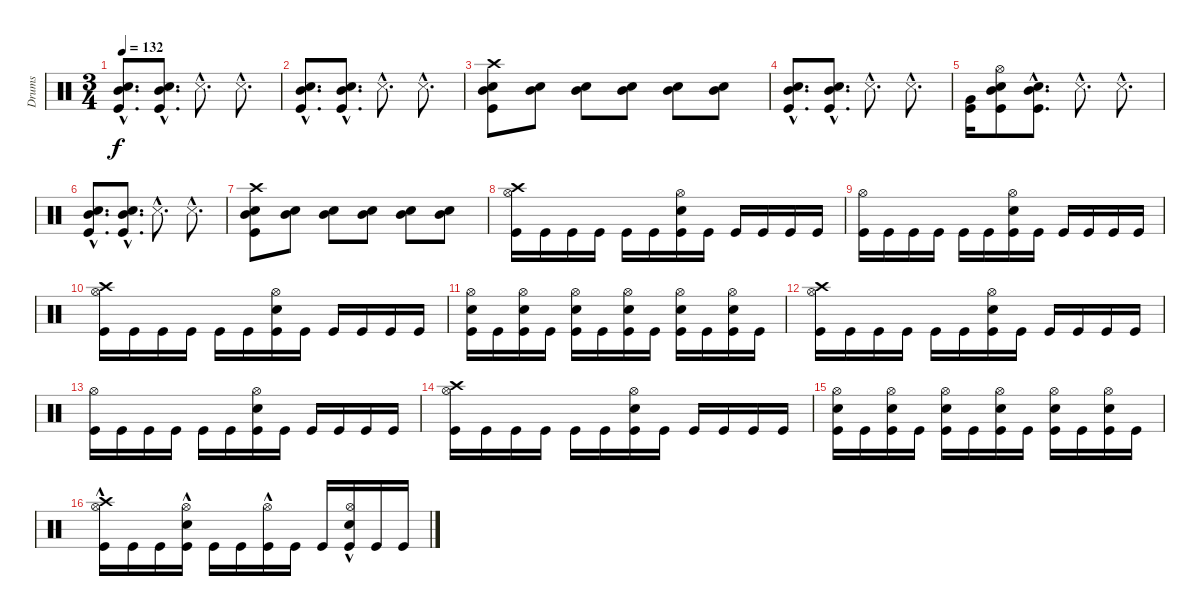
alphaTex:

\track ("Drums" "Drums") {instrument percussion}
\staff {score}
\articulation defaults
\ts (3 4)
\tempo 132
\clef neutral
\ks c
("Kick (hit)"{hac} "Snare (hit) 2"{hac} "Mid Tom (hit)"{hac}).8{d dy f} ("Kick (hit)"{hac} "Snare (hit) 2"{hac} "Mid Tom (hit)"{hac}).8{d} "Metronome (hit)"{hac}.8{d} "Metronome (hit)"{hac}.8{d} |
("Kick (hit)"{hac} "Snare (hit) 2"{hac} "Mid Tom (hit)"{hac}).8{d} ("Kick (hit)"{hac} "Snare (hit) 2"{hac} "Mid Tom (hit)"{hac}).8{d} "Metronome (hit)"{hac}.8{d} "Metronome (hit)"{hac}.8{d} |
("Mid Tom (hit)" "Crash high (hit)" "Snare (hit) 2" "Kick (hit)").8 ("Mid Tom (hit)" "Snare (hit) 2").8 ("Mid Tom (hit)" "Snare (hit) 2").8 ("Mid Tom (hit)" "Snare (hit) 2").8 ("Mid Tom (hit)" "Snare (hit) 2").8 ("Mid Tom (hit)" "Snare (hit) 2").8 |
("Kick (hit)"{hac} "Snare (hit) 2"{hac} "Mid Tom (hit)"{hac}).8{d} ("Kick (hit)"{hac} "Snare (hit) 2"{hac} "Mid Tom (hit)"{hac}).8{d} "Metronome (hit)"{hac}.8{d} "Metronome (hit)"{hac}.8{d} |
("Kick (hit)" "Very Low Tom (hit)").16 ("Hi-Hat (open)" "Snare (hit) 2" "Kick (hit)" "Mid Tom (hit)").8 ("Kick (hit)"{hac} "Snare (hit) 2"{hac} "Mid Tom (hit)"{hac}).8{d} "Metronome (hit)"{hac}.8{d} "Metronome (hit)"{hac}.8{d} |
("Kick (hit)"{hac} "Snare (hit) 2"{hac} "Mid Tom (hit)"{hac}).8{d} ("Kick (hit)"{hac} "Snare (hit) 2"{hac} "Mid Tom (hit)"{hac}).8{d} "Metronome (hit)"{hac}.8{d} "Metronome (hit)"{hac}.8{d} |
("Mid Tom (hit)" "Crash high (hit)" "Snare (hit) 2" "Kick (hit)").8 ("Mid Tom (hit)" "Snare (hit) 2").8 ("Mid Tom (hit)" "Snare (hit) 2").8 ("Mid Tom (hit)" "Snare (hit) 2").8 ("Mid Tom (hit)" "Snare (hit) 2").8 ("Mid Tom (hit)" "Snare (hit) 2").8 |
("Kick (hit)" "Crash high (hit)" "Hi-Hat (open)").16 "Kick (hit)".16 "Kick (hit)".16 "Kick (hit)".16 "Kick (hit)".16 "Kick (hit)".16 ("Kick (hit)" "Snare (hit) 2" "Hi-Hat (open)").16 "Kick (hit)".16 "Kick (hit)".16 "Kick (hit)".16 "Kick (hit)".16 "Kick (hit)".16 |
("Kick (hit)" "Hi-Hat (open)").16 "Kick (hit)".16 "Kick (hit)".16 "Kick (hit)".16 "Kick (hit)".16 "Kick (hit)".16 ("Kick (hit)" "Snare (hit) 2" "Hi-Hat (open)").16 "Kick (hit)".16 "Kick (hit)".16 "Kick (hit)".16 "Kick (hit)".16 "Kick (hit)".16 |
("Kick (hit)" "Crash high (hit)" "Hi-Hat (open)").16 "Kick (hit)".16 "Kick (hit)".16 "Kick (hit)".16 "Kick (hit)".16 "Kick (hit)".16 ("Kick (hit)" "Snare (hit) 2" "Hi-Hat (open)").16 "Kick (hit)".16 "Kick (hit)".16 "Kick (hit)".16 "Kick (hit)".16 "Kick (hit)".16 |
("Kick (hit)" "Snare (hit) 2" "Hi-Hat (open)").16 "Kick (hit)".16 ("Kick (hit)" "Hi-Hat (open)" "Snare (hit) 2").16 "Kick (hit)".16 ("Kick (hit)" "Hi-Hat (open)" "Snare (hit) 2").16 "Kick (hit)".16 ("Kick (hit)" "Snare (hit) 2" "Hi-Hat (open)").16 "Kick (hit)".16 ("Kick (hit)" "Hi-Hat (open)" "Snare (hit) 2").16 "Kick (hit)".16 ("Kick (hit)" "Hi-Hat (open)" "Snare (hit) 2").16 "Kick (hit)".16 |
("Kick (hit)" "Crash high (hit)" "Hi-Hat (open)").16 "Kick (hit)".16 "Kick (hit)".16 "Kick (hit)".16 "Kick (hit)".16 "Kick (hit)".16 ("Kick (hit)" "Snare (hit) 2" "Hi-Hat (open)").16 "Kick (hit)".16 "Kick (hit)".16 "Kick (hit)".16 "Kick (hit)".16 "Kick (hit)".16 |
("Kick (hit)" "Hi-Hat (open)").16 "Kick (hit)".16 "Kick (hit)".16 "Kick (hit)".16 "Kick (hit)".16 "Kick (hit)".16 ("Kick (hit)" "Snare (hit) 2" "Hi-Hat (open)").16 "Kick (hit)".16 "Kick (hit)".16 "Kick (hit)".16 "Kick (hit)".16 "Kick (hit)".16 |
("Kick (hit)" "Crash high (hit)" "Hi-Hat (open)").16 "Kick (hit)".16 "Kick (hit)".16 "Kick (hit)".16 "Kick (hit)".16 "Kick (hit)".16 ("Kick (hit)" "Snare (hit) 2" "Hi-Hat (open)").16 "Kick (hit)".16 "Kick (hit)".16 "Kick (hit)".16 "Kick (hit)".16 "Kick (hit)".16 |
("Kick (hit)" "Snare (hit) 2" "Hi-Hat (open)").16 "Kick (hit)".16 ("Kick (hit)" "Hi-Hat (open)" "Snare (hit) 2").16 "Kick (hit)".16 ("Kick (hit)" "Hi-Hat (open)" "Snare (hit) 2").16 "Kick (hit)".16 ("Kick (hit)" "Snare (hit) 2" "Hi-Hat (open)").16 "Kick (hit)".16 ("Kick (hit)" "Hi-Hat (open)" "Snare (hit) 2").16 "Kick (hit)".16 ("Kick (hit)" "Hi-Hat (open)" "Snare (hit) 2").16 "Kick (hit)".16 |
("Crash high (hit)" "Hi-Hat (open)"{hac} "Kick (hit)").16 "Kick (hit)".16 "Kick (hit)".16 ("Hi-Hat (open)"{hac} "Kick (hit)" "Electric Snare (hit)").16 "Kick (hit)".16 "Kick (hit)".16 ("Hi-Hat (open)"{hac} "Kick (hit)").16 "Kick (hit)".16 "Kick (hit)".16 ("Hi-Hat (open)"{hac} "Kick (hit)" "Electric Snare (hit)").16 "Kick (hit)".16 "Kick (hit)".16
